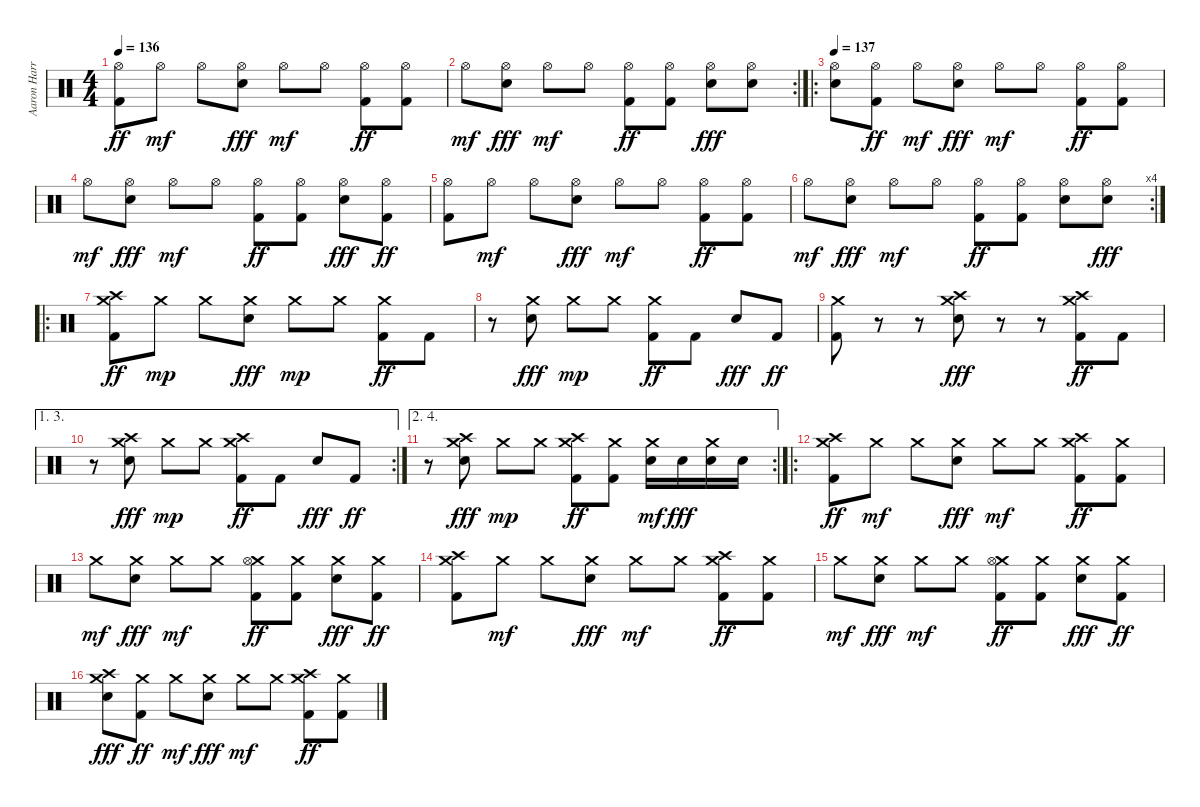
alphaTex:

\track ("Aaron Harris" "Aaron Harr") {instrument percussion}
\staff {score}
\articulation defaults
\ts (4 4)
\tempo 136
\clef neutral
\ks c
("Hi-Hat (open)" "Kick (hit) 2").8{dy ff} "Hi-Hat (open)".8{dy mf} "Hi-Hat (open)".8 ("Hi-Hat (open)" "Electric Snare (hit)").8{dy fff} "Hi-Hat (open)".8{dy mf} "Hi-Hat (open)".8 ("Hi-Hat (open)" "Kick (hit) 2").8{dy ff} ("Hi-Hat (open)" "Kick (hit) 2").8 |
\rc 2 "Hi-Hat (open)".8{dy mf}
("Hi-Hat (open)" "Electric Snare (hit)").8{dy fff} "Hi-Hat (open)".8{dy mf} "Hi-Hat (open)".8 ("Hi-Hat (open)" "Kick (hit) 2").8{dy ff} ("Hi-Hat (open)" "Kick (hit) 2").8 ("Hi-Hat (open)" "Electric Snare (hit)").8{dy fff} ("Hi-Hat (open)" "Electric Snare (hit)").8 |
\ro
\tempo 137
("Hi-Hat (open)" "Electric Snare (hit)").8 ("Hi-Hat (open)" "Kick (hit) 2").8{dy ff} "Hi-Hat (open)".8{dy mf} ("Hi-Hat (open)" "Electric Snare (hit)").8{dy fff} "Hi-Hat (open)".8{dy mf} "Hi-Hat (open)".8 ("Hi-Hat (open)" "Kick (hit) 2").8{dy ff} ("Hi-Hat (open)" "Kick (hit) 2").8 |
"Hi-Hat (open)".8{dy mf} ("Hi-Hat (open)" "Electric Snare (hit)").8{dy fff} "Hi-Hat (open)".8{dy mf} "Hi-Hat (open)".8 ("Hi-Hat (open)" "Kick (hit) 2").8{dy ff} ("Hi-Hat (open)" "Kick (hit) 2").8 ("Hi-Hat (open)" "Electric Snare (hit)").8{dy fff} ("Hi-Hat (open)" "Kick (hit) 2").8{dy ff} |
("Hi-Hat (open)" "Kick (hit) 2").8 "Hi-Hat (open)".8{dy mf} "Hi-Hat (open)".8 ("Hi-Hat (open)" "Electric Snare (hit)").8{dy fff} "Hi-Hat (open)".8{dy mf} "Hi-Hat (open)".8 ("Hi-Hat (open)" "Kick (hit) 2").8{dy ff} ("Hi-Hat (open)" "Kick (hit) 2").8 |
\rc 4 "Hi-Hat (open)".8{dy mf}
("Hi-Hat (open)" "Electric Snare (hit)").8{dy fff} "Hi-Hat (open)".8{dy mf} "Hi-Hat (open)".8 ("Hi-Hat (open)" "Kick (hit) 2").8{dy ff} ("Hi-Hat (open)" "Kick (hit) 2").8 ("Hi-Hat (open)" "Electric Snare (hit)").8 ("Hi-Hat (open)" "Electric Snare (hit)").8{dy fff} |
\ro
("Crash medium (hit)" "Crash high (hit)" "Kick (hit) 2").8{dy ff} "Crash medium (hit)".8{dy mp} "Crash medium (hit)".8 ("Crash medium (hit)" "Electric Snare (hit)").8{dy fff} "Crash medium (hit)".8{dy mp} "Crash medium (hit)".8 ("Crash medium (hit)" "Kick (hit) 2").8{dy ff} "Kick (hit) 2".8 |
r.8 ("Crash medium (hit)" "Electric Snare (hit)").8{dy fff} "Crash medium (hit)".8{dy mp} "Crash medium (hit)".8 ("Crash medium (hit)" "Kick (hit) 2").8{dy ff} "Kick (hit) 2".8 "Electric Snare (hit)".8{dy fff} "Kick (hit) 2".8{dy ff} |
("Crash medium (hit)" "Kick (hit) 2").8 r.8 r.8 ("Crash medium (hit)" "Crash high (hit)" "Electric Snare (hit)").8{dy fff} r.8 r.8 ("Crash medium (hit)" "Crash high (hit)" "Kick (hit) 2").8{dy ff} "Kick (hit) 2".8 |
\ae (1 3)
\rc 2
r.8 ("Crash medium (hit)" "Crash high (hit)" "Electric Snare (hit)").8{dy fff} "Crash medium (hit)".8{dy mp} "Crash medium (hit)".8 ("Crash medium (hit)" "Crash high (hit)" "Kick (hit) 2").8{dy ff} "Kick (hit) 2".8 "Electric Snare (hit)".8{dy fff} "Kick (hit) 2".8{dy ff} |
\ae (2 4)
\rc 2
r.8 ("Crash medium (hit)" "Crash high (hit)" "Electric Snare (hit)").8{dy fff} "Crash medium (hit)".8{dy mp} "Crash medium (hit)".8 ("Crash medium (hit)" "Crash high (hit)" "Kick (hit) 2").8{dy ff} ("Crash medium (hit)" "Kick (hit) 2").8 ("Crash medium (hit)" "Electric Snare (hit)").16{dy mf} "Electric Snare (hit)".16{dy fff} ("Crash medium (hit)" "Electric Snare (hit)").16 "Electric Snare (hit)".16 |
\ro
("Crash medium (hit)" "Crash high (hit)" "Kick (hit) 2").8{dy ff} "Crash medium (hit)".8{dy mf} "Crash medium (hit)".8 ("Crash medium (hit)" "Electric Snare (hit)").8{dy fff} "Crash medium (hit)".8{dy mf} "Crash medium (hit)".8 ("Crash medium (hit)" "Crash high (hit)" "Kick (hit) 2").8{dy ff} ("Crash medium (hit)" "Kick (hit) 2").8 |
"Crash medium (hit)".8{dy mf} ("Crash medium (hit)" "Electric Snare (hit)").8{dy fff} "Crash medium (hit)".8{dy mf} "Crash medium (hit)".8 ("Crash medium (hit)" "Hi-Hat (open)" "Kick (hit) 2").8{dy ff} ("Crash medium (hit)" "Kick (hit) 2").8 ("Crash medium (hit)" "Electric Snare (hit)").8{dy fff} ("Crash medium (hit)" "Kick (hit) 2").8{dy ff} |
("Crash medium (hit)" "Crash high (hit)" "Kick (hit) 2").8 "Crash medium (hit)".8{dy mf} "Crash medium (hit)".8 ("Crash medium (hit)" "Electric Snare (hit)").8{dy fff} "Crash medium (hit)".8{dy mf} "Crash medium (hit)".8 ("Crash medium (hit)" "Crash high (hit)" "Kick (hit) 2").8{dy ff} ("Crash medium (hit)" "Kick (hit) 2").8 |
"Crash medium (hit)".8{dy mf} ("Crash medium (hit)" "Electric Snare (hit)").8{dy fff} "Crash medium (hit)".8{dy mf} "Crash medium (hit)".8 ("Crash medium (hit)" "Hi-Hat (open)" "Kick (hit) 2").8{dy ff} ("Crash medium (hit)" "Kick (hit) 2").8 ("Crash medium (hit)" "Electric Snare (hit)").8{dy fff} ("Crash medium (hit)" "Kick (hit) 2").8{dy ff} |
("Crash medium (hit)" "Crash high (hit)" "Electric Snare (hit)").8{dy fff} ("Crash medium (hit)" "Kick (hit) 2").8{dy ff} "Crash medium (hit)".8{dy mf} ("Crash medium (hit)" "Electric Snare (hit)").8{dy fff} "Crash medium (hit)".8{dy mf} "Crash medium (hit)".8 ("Crash medium (hit)" "Crash high (hit)" "Kick (hit) 2").8{dy ff} ("Crash medium (hit)" "Kick (hit) 2").8
